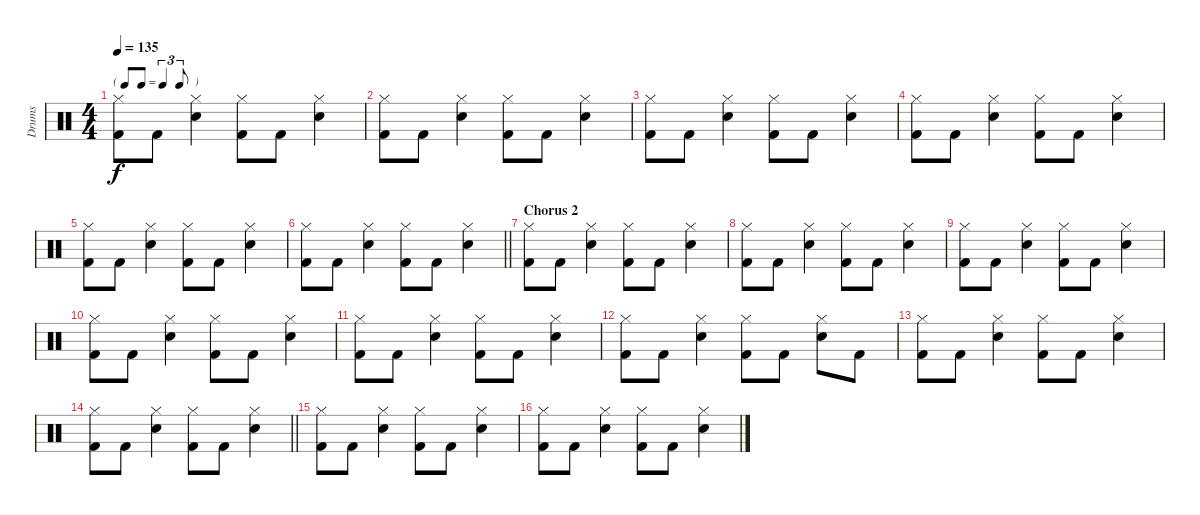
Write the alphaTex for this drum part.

\track ("Drums" "Drums") {instrument percussion}
\staff {score}
\articulation defaults
\ts (4 4)
\tf triplet8th
\tempo 135
\clef neutral
\ks c
("Hi-Hat (closed)" "Kick (hit) 2").8{dy f} "Kick (hit) 2".8 ("Hi-Hat (closed)" "Snare (hit) 2").4 ("Hi-Hat (closed)" "Kick (hit) 2").8 "Kick (hit) 2".8 ("Hi-Hat (closed)" "Snare (hit) 2").4 |
("Hi-Hat (closed)" "Kick (hit) 2").8 "Kick (hit) 2".8 ("Hi-Hat (closed)" "Snare (hit) 2").4 ("Hi-Hat (closed)" "Kick (hit) 2").8 "Kick (hit) 2".8 ("Hi-Hat (closed)" "Snare (hit) 2").4 |
("Hi-Hat (closed)" "Kick (hit) 2").8 "Kick (hit) 2".8 ("Hi-Hat (closed)" "Snare (hit) 2").4 ("Hi-Hat (closed)" "Kick (hit) 2").8 "Kick (hit) 2".8 ("Hi-Hat (closed)" "Snare (hit) 2").4 |
("Hi-Hat (closed)" "Kick (hit) 2").8 "Kick (hit) 2".8 ("Hi-Hat (closed)" "Snare (hit) 2").4 ("Hi-Hat (closed)" "Kick (hit) 2").8 "Kick (hit) 2".8 ("Hi-Hat (closed)" "Snare (hit) 2").4 |
("Hi-Hat (closed)" "Kick (hit) 2").8 "Kick (hit) 2".8 ("Hi-Hat (closed)" "Snare (hit) 2").4 ("Hi-Hat (closed)" "Kick (hit) 2").8 "Kick (hit) 2".8 ("Hi-Hat (closed)" "Snare (hit) 2").4 |
\barLineRight lightlight
("Hi-Hat (closed)" "Kick (hit) 2").8 "Kick (hit) 2".8 ("Hi-Hat (closed)" "Snare (hit) 2").4 ("Hi-Hat (closed)" "Kick (hit) 2").8 "Kick (hit) 2".8 ("Hi-Hat (closed)" "Snare (hit) 2").4 |
\section ("" "Chorus 2")
("Hi-Hat (closed)" "Kick (hit) 2").8 "Kick (hit) 2".8 ("Hi-Hat (closed)" "Snare (hit) 2").4 ("Hi-Hat (closed)" "Kick (hit) 2").8 "Kick (hit) 2".8 ("Hi-Hat (closed)" "Snare (hit) 2").4 |
("Hi-Hat (closed)" "Kick (hit) 2").8 "Kick (hit) 2".8 ("Hi-Hat (closed)" "Snare (hit) 2").4 ("Hi-Hat (closed)" "Kick (hit) 2").8 "Kick (hit) 2".8 ("Hi-Hat (closed)" "Snare (hit) 2").4 |
("Hi-Hat (closed)" "Kick (hit) 2").8 "Kick (hit) 2".8 ("Hi-Hat (closed)" "Snare (hit) 2").4 ("Hi-Hat (closed)" "Kick (hit) 2").8 "Kick (hit) 2".8 ("Hi-Hat (closed)" "Snare (hit) 2").4 |
("Hi-Hat (closed)" "Kick (hit) 2").8 "Kick (hit) 2".8 ("Hi-Hat (closed)" "Snare (hit) 2").4 ("Hi-Hat (closed)" "Kick (hit) 2").8 "Kick (hit) 2".8 ("Hi-Hat (closed)" "Snare (hit) 2").4 |
("Hi-Hat (closed)" "Kick (hit) 2").8 "Kick (hit) 2".8 ("Hi-Hat (closed)" "Snare (hit) 2").4 ("Hi-Hat (closed)" "Kick (hit) 2").8 "Kick (hit) 2".8 ("Hi-Hat (closed)" "Snare (hit) 2").4 |
("Hi-Hat (closed)" "Kick (hit) 2").8 "Kick (hit) 2".8 ("Hi-Hat (closed)" "Snare (hit) 2").4 ("Hi-Hat (closed)" "Kick (hit) 2").8 "Kick (hit) 2".8 ("Hi-Hat (closed)" "Snare (hit) 2").8 "Kick (hit) 2".8 |
("Hi-Hat (closed)" "Kick (hit) 2").8 "Kick (hit) 2".8 ("Hi-Hat (closed)" "Snare (hit) 2").4 ("Hi-Hat (closed)" "Kick (hit) 2").8 "Kick (hit) 2".8 ("Hi-Hat (closed)" "Snare (hit) 2").4 |
\barLineRight lightlight
("Hi-Hat (closed)" "Kick (hit) 2").8 "Kick (hit) 2".8 ("Hi-Hat (closed)" "Snare (hit) 2").4 ("Hi-Hat (closed)" "Kick (hit) 2").8 "Kick (hit) 2".8 ("Hi-Hat (closed)" "Snare (hit) 2").4 |
("Hi-Hat (closed)" "Kick (hit) 2").8 "Kick (hit) 2".8 ("Hi-Hat (closed)" "Snare (hit) 2").4 ("Hi-Hat (closed)" "Kick (hit) 2").8 "Kick (hit) 2".8 ("Hi-Hat (closed)" "Snare (hit) 2").4 |
("Hi-Hat (closed)" "Kick (hit) 2").8 "Kick (hit) 2".8 ("Hi-Hat (closed)" "Snare (hit) 2").4 ("Hi-Hat (closed)" "Kick (hit) 2").8 "Kick (hit) 2".8 ("Hi-Hat (closed)" "Snare (hit) 2").4
